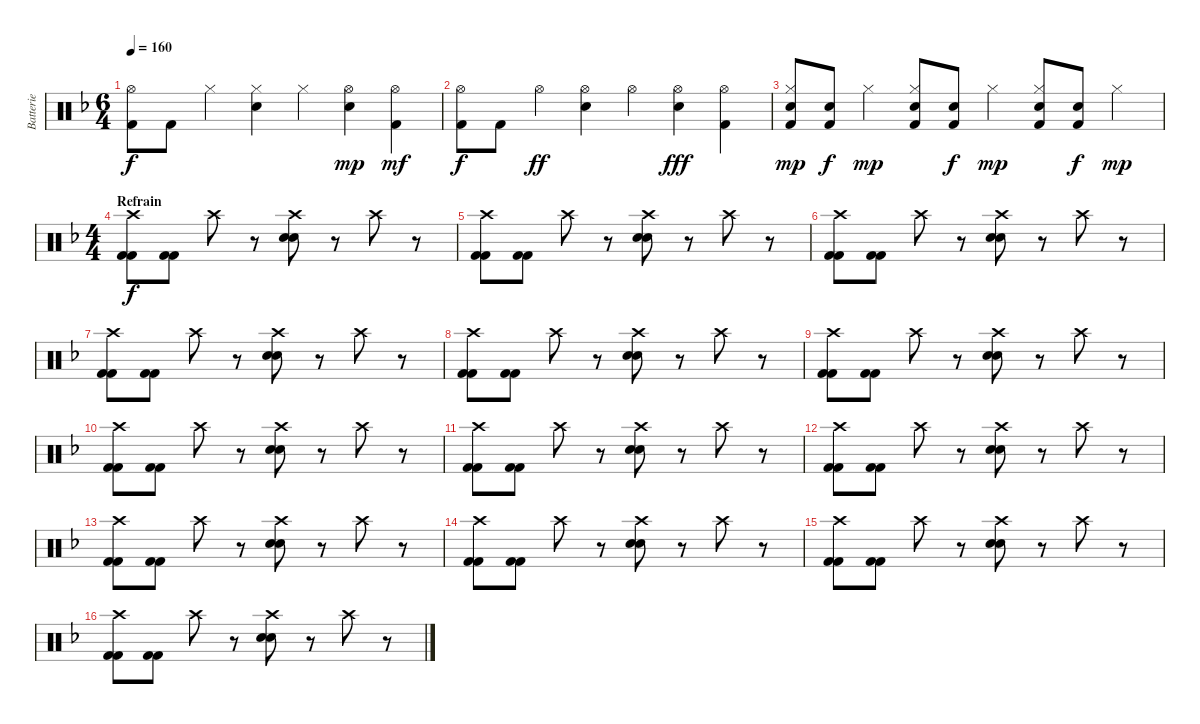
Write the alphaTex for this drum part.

\track ("Batterie" "Batterie") {instrument percussion}
\staff {score}
\articulation defaults
\ts (6 4)
\tempo 160
\clef neutral
\ks f
("Hi-Hat (open)" "Kick (hit) 2").8{dy f} "Kick (hit) 2".8 "Hi-Hat (closed)".4 ("Hi-Hat (closed)" "Electric Snare (hit)").4 "Hi-Hat (closed)".4 ("Hi-Hat (open)" "Electric Snare (hit)").4{dy mp} ("Hi-Hat (open)" "Kick (hit) 2").4{dy mf} |
("Hi-Hat (open)" "Kick (hit) 2").8{dy f} "Kick (hit) 2".8 "Hi-Hat (open)".4{dy ff} ("Hi-Hat (open)" "Electric Snare (hit)").4 "Hi-Hat (open)".4 ("Hi-Hat (open)" "Electric Snare (hit)").4{dy fff} ("Hi-Hat (open)" "Kick (hit) 2").4 |
("Hi-Hat (closed)" "Electric Snare (hit)" "Kick (hit) 2").8{dy mp} ("Electric Snare (hit)" "Kick (hit) 2").8{dy f} "Hi-Hat (closed)".4{dy mp} ("Hi-Hat (closed)" "Electric Snare (hit)" "Kick (hit) 2").8 ("Electric Snare (hit)" "Kick (hit) 2").8{dy f} "Hi-Hat (closed)".4{dy mp} ("Hi-Hat (closed)" "Electric Snare (hit)" "Kick (hit) 2").8 ("Electric Snare (hit)" "Kick (hit) 2").8{dy f} "Hi-Hat (closed)".4{dy mp} |
\ts (4 4)
\section ("" "Refrain")
("Crash high (hit)" "Kick (hit) 2" "Kick (hit) 2").8{dy f} ("Kick (hit) 2" "Kick (hit) 2").8 "Crash high (hit)".8 r.8 ("Crash high (hit)" "Electric Snare (hit)" "Electric Snare (hit)").8 r.8 "Crash high (hit)".8 r.8 |
("Crash high (hit)" "Kick (hit) 2" "Kick (hit) 2").8 ("Kick (hit) 2" "Kick (hit) 2").8 "Crash high (hit)".8 r.8 ("Crash high (hit)" "Electric Snare (hit)" "Electric Snare (hit)").8 r.8 "Crash high (hit)".8 r.8 |
("Crash high (hit)" "Kick (hit) 2" "Kick (hit) 2").8 ("Kick (hit) 2" "Kick (hit) 2").8 "Crash high (hit)".8 r.8 ("Crash high (hit)" "Electric Snare (hit)" "Electric Snare (hit)").8 r.8 "Crash high (hit)".8 r.8 |
("Crash high (hit)" "Kick (hit) 2" "Kick (hit) 2").8 ("Kick (hit) 2" "Kick (hit) 2").8 "Crash high (hit)".8 r.8 ("Crash high (hit)" "Electric Snare (hit)" "Electric Snare (hit)").8 r.8 "Crash high (hit)".8 r.8 |
("Crash high (hit)" "Kick (hit) 2" "Kick (hit) 2").8 ("Kick (hit) 2" "Kick (hit) 2").8 "Crash high (hit)".8 r.8 ("Crash high (hit)" "Electric Snare (hit)" "Electric Snare (hit)").8 r.8 "Crash high (hit)".8 r.8 |
("Crash high (hit)" "Kick (hit) 2" "Kick (hit) 2").8 ("Kick (hit) 2" "Kick (hit) 2").8 "Crash high (hit)".8 r.8 ("Crash high (hit)" "Electric Snare (hit)" "Electric Snare (hit)").8 r.8 "Crash high (hit)".8 r.8 |
("Crash high (hit)" "Kick (hit) 2" "Kick (hit) 2").8 ("Kick (hit) 2" "Kick (hit) 2").8 "Crash high (hit)".8 r.8 ("Crash high (hit)" "Electric Snare (hit)" "Electric Snare (hit)").8 r.8 "Crash high (hit)".8 r.8 |
("Crash high (hit)" "Kick (hit) 2" "Kick (hit) 2").8 ("Kick (hit) 2" "Kick (hit) 2").8 "Crash high (hit)".8 r.8 ("Crash high (hit)" "Electric Snare (hit)" "Electric Snare (hit)").8 r.8 "Crash high (hit)".8 r.8 |
("Crash high (hit)" "Kick (hit) 2" "Kick (hit) 2").8 ("Kick (hit) 2" "Kick (hit) 2").8 "Crash high (hit)".8 r.8 ("Crash high (hit)" "Electric Snare (hit)" "Electric Snare (hit)").8 r.8 "Crash high (hit)".8 r.8 |
("Crash high (hit)" "Kick (hit) 2" "Kick (hit) 2").8 ("Kick (hit) 2" "Kick (hit) 2").8 "Crash high (hit)".8 r.8 ("Crash high (hit)" "Electric Snare (hit)" "Electric Snare (hit)").8 r.8 "Crash high (hit)".8 r.8 |
("Crash high (hit)" "Kick (hit) 2" "Kick (hit) 2").8 ("Kick (hit) 2" "Kick (hit) 2").8 "Crash high (hit)".8 r.8 ("Crash high (hit)" "Electric Snare (hit)" "Electric Snare (hit)").8 r.8 "Crash high (hit)".8 r.8 |
("Crash high (hit)" "Kick (hit) 2" "Kick (hit) 2").8 ("Kick (hit) 2" "Kick (hit) 2").8 "Crash high (hit)".8 r.8 ("Crash high (hit)" "Electric Snare (hit)" "Electric Snare (hit)").8 r.8 "Crash high (hit)".8 r.8 |
("Crash high (hit)" "Kick (hit) 2" "Kick (hit) 2").8 ("Kick (hit) 2" "Kick (hit) 2").8 "Crash high (hit)".8 r.8 ("Crash high (hit)" "Electric Snare (hit)" "Electric Snare (hit)").8 r.8 "Crash high (hit)".8 r.8
